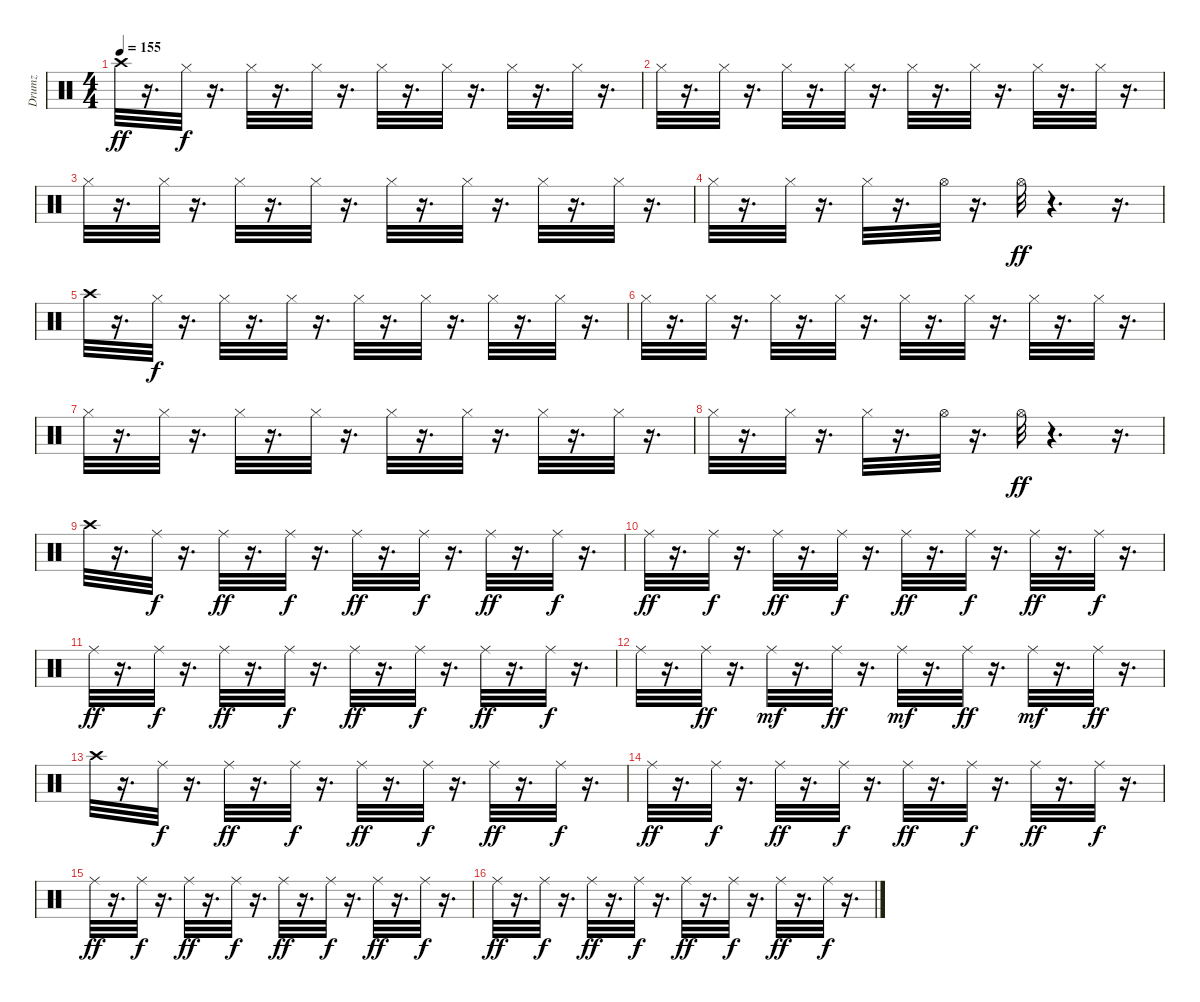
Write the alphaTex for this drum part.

\track ("Drumz" "Drumz") {instrument percussion}
\staff {score}
\articulation defaults
\ts (4 4)
\tempo 155
\clef neutral
\ks c "Crash high (hit)".32{dy ff}
r.16{d} "Hi-Hat (closed)".32{dy f} r.16{d} "Hi-Hat (closed)".32 r.16{d} "Hi-Hat (closed)".32 r.16{d} "Hi-Hat (closed)".32 r.16{d} "Hi-Hat (closed)".32 r.16{d} "Hi-Hat (closed)".32 r.16{d} "Hi-Hat (closed)".32 r.16{d} |
"Hi-Hat (closed)".32 r.16{d} "Hi-Hat (closed)".32 r.16{d} "Hi-Hat (closed)".32 r.16{d} "Hi-Hat (closed)".32 r.16{d} "Hi-Hat (closed)".32 r.16{d} "Hi-Hat (closed)".32 r.16{d} "Hi-Hat (closed)".32 r.16{d} "Hi-Hat (closed)".32 r.16{d} |
"Hi-Hat (closed)".32 r.16{d} "Hi-Hat (closed)".32 r.16{d} "Hi-Hat (closed)".32 r.16{d} "Hi-Hat (closed)".32 r.16{d} "Hi-Hat (closed)".32 r.16{d} "Hi-Hat (closed)".32 r.16{d} "Hi-Hat (closed)".32 r.16{d} "Hi-Hat (closed)".32 r.16{d} |
"Hi-Hat (closed)".32 r.16{d} "Hi-Hat (closed)".32 r.16{d} "Hi-Hat (closed)".32 r.16{d} "Hi-Hat (open)".32 r.16{d} "Hi-Hat (open)".32{dy ff} r.4{d} r.16{d} |
"Crash high (hit)".32 r.16{d} "Hi-Hat (closed)".32{dy f} r.16{d} "Hi-Hat (closed)".32 r.16{d} "Hi-Hat (closed)".32 r.16{d} "Hi-Hat (closed)".32 r.16{d} "Hi-Hat (closed)".32 r.16{d} "Hi-Hat (closed)".32 r.16{d} "Hi-Hat (closed)".32 r.16{d} |
"Hi-Hat (closed)".32 r.16{d} "Hi-Hat (closed)".32 r.16{d} "Hi-Hat (closed)".32 r.16{d} "Hi-Hat (closed)".32 r.16{d} "Hi-Hat (closed)".32 r.16{d} "Hi-Hat (closed)".32 r.16{d} "Hi-Hat (closed)".32 r.16{d} "Hi-Hat (closed)".32 r.16{d} |
"Hi-Hat (closed)".32 r.16{d} "Hi-Hat (closed)".32 r.16{d} "Hi-Hat (closed)".32 r.16{d} "Hi-Hat (closed)".32 r.16{d} "Hi-Hat (closed)".32 r.16{d} "Hi-Hat (closed)".32 r.16{d} "Hi-Hat (closed)".32 r.16{d} "Hi-Hat (closed)".32 r.16{d} |
"Hi-Hat (closed)".32 r.16{d} "Hi-Hat (closed)".32 r.16{d} "Hi-Hat (closed)".32 r.16{d} "Hi-Hat (open)".32 r.16{d} "Hi-Hat (open)".32{dy ff} r.4{d} r.16{d} |
"Crash high (hit)".32 r.16{d} "Ride (middle)".32{dy f} r.16{d} "Ride (middle)".32{dy ff} r.16{d} "Ride (middle)".32{dy f} r.16{d} "Ride (middle)".32{dy ff} r.16{d} "Ride (middle)".32{dy f} r.16{d} "Ride (middle)".32{dy ff} r.16{d} "Ride (middle)".32{dy f} r.16{d} |
"Ride (middle)".32{dy ff} r.16{d} "Ride (middle)".32{dy f} r.16{d} "Ride (middle)".32{dy ff} r.16{d} "Ride (middle)".32{dy f} r.16{d} "Ride (middle)".32{dy ff} r.16{d} "Ride (middle)".32{dy f} r.16{d} "Ride (middle)".32{dy ff} r.16{d} "Ride (middle)".32{dy f} r.16{d} |
"Ride (middle)".32{dy ff} r.16{d} "Ride (middle)".32{dy f} r.16{d} "Ride (middle)".32{dy ff} r.16{d} "Ride (middle)".32{dy f} r.16{d} "Ride (middle)".32{dy ff} r.16{d} "Ride (middle)".32{dy f} r.16{d} "Ride (middle)".32{dy ff} r.16{d} "Ride (middle)".32{dy f} r.16{d} |
"Ride (middle)".32 r.16{d} "Ride (middle)".32{dy ff} r.16{d} "Ride (middle)".32{dy mf} r.16{d} "Ride (middle)".32{dy ff} r.16{d} "Ride (middle)".32{dy mf} r.16{d} "Ride (middle)".32{dy ff} r.16{d} "Ride (middle)".32{dy mf} r.16{d} "Ride (middle)".32{dy ff} r.16{d} |
"Crash high (hit)".32 r.16{d} "Ride (middle)".32{dy f} r.16{d} "Ride (middle)".32{dy ff} r.16{d} "Ride (middle)".32{dy f} r.16{d} "Ride (middle)".32{dy ff} r.16{d} "Ride (middle)".32{dy f} r.16{d} "Ride (middle)".32{dy ff} r.16{d} "Ride (middle)".32{dy f} r.16{d} |
"Ride (middle)".32{dy ff} r.16{d} "Ride (middle)".32{dy f} r.16{d} "Ride (middle)".32{dy ff} r.16{d} "Ride (middle)".32{dy f} r.16{d} "Ride (middle)".32{dy ff} r.16{d} "Ride (middle)".32{dy f} r.16{d} "Ride (middle)".32{dy ff} r.16{d} "Ride (middle)".32{dy f} r.16{d} |
"Ride (middle)".32{dy ff} r.16{d} "Ride (middle)".32{dy f} r.16{d} "Ride (middle)".32{dy ff} r.16{d} "Ride (middle)".32{dy f} r.16{d} "Ride (middle)".32{dy ff} r.16{d} "Ride (middle)".32{dy f} r.16{d} "Ride (middle)".32{dy ff} r.16{d} "Ride (middle)".32{dy f} r.16{d} |
"Ride (middle)".32{dy ff} r.16{d} "Ride (middle)".32{dy f} r.16{d} "Ride (middle)".32{dy ff} r.16{d} "Ride (middle)".32{dy f} r.16{d} "Ride (middle)".32{dy ff} r.16{d} "Ride (middle)".32{dy f} r.16{d} "Ride (middle)".32{dy ff} r.16{d} "Ride (middle)".32{dy f} r.16{d}
